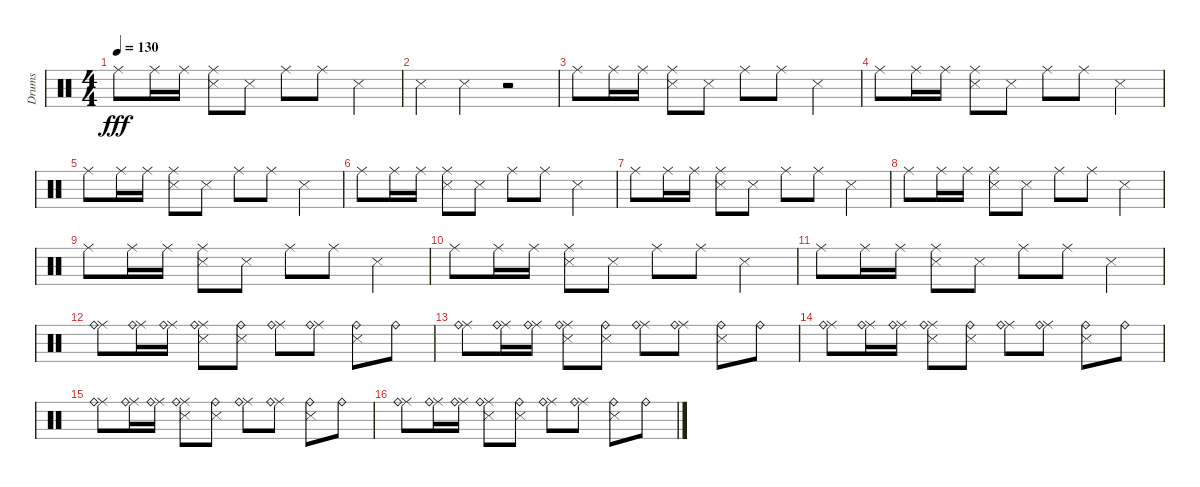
\track ("Drums" "Drums") {instrument percussion}
\staff {score}
\articulation defaults
\ts (4 4)
\tempo 130
\clef neutral
\ks c "Ride (middle)".8{dy fff} "Ride (middle)".16 "Ride (middle)".16
("Ride (middle)" "Snare (side stick) 3").8 "Snare (side stick) 3".8 "Ride (middle)".8 "Ride (middle)".8 "Snare (side stick) 3".4 |
"Snare (side stick) 3".4 "Snare (side stick) 3".4 r.2 |
"Ride (middle)".8 "Ride (middle)".16 "Ride (middle)".16 ("Ride (middle)" "Snare (side stick) 3").8 "Snare (side stick) 3".8 "Ride (middle)".8 "Ride (middle)".8 "Snare (side stick) 3".4 |
"Ride (middle)".8 "Ride (middle)".16 "Ride (middle)".16 ("Ride (middle)" "Snare (side stick) 3").8 "Snare (side stick) 3".8 "Ride (middle)".8 "Ride (middle)".8 "Snare (side stick) 3".4 |
"Ride (middle)".8 "Ride (middle)".16 "Ride (middle)".16 ("Ride (middle)" "Snare (side stick) 3").8 "Snare (side stick) 3".8 "Ride (middle)".8 "Ride (middle)".8 "Snare (side stick) 3".4 |
"Ride (middle)".8 "Ride (middle)".16 "Ride (middle)".16 ("Ride (middle)" "Snare (side stick) 3").8 "Snare (side stick) 3".8 "Ride (middle)".8 "Ride (middle)".8 "Snare (side stick) 3".4 |
"Ride (middle)".8 "Ride (middle)".16 "Ride (middle)".16 ("Ride (middle)" "Snare (side stick) 3").8 "Snare (side stick) 3".8 "Ride (middle)".8 "Ride (middle)".8 "Snare (side stick) 3".4 |
"Ride (middle)".8 "Ride (middle)".16 "Ride (middle)".16 ("Ride (middle)" "Snare (side stick) 3").8 "Snare (side stick) 3".8 "Ride (middle)".8 "Ride (middle)".8 "Snare (side stick) 3".4 |
"Ride (middle)".8 "Ride (middle)".16 "Ride (middle)".16 ("Ride (middle)" "Snare (side stick) 3").8 "Snare (side stick) 3".8 "Ride (middle)".8 "Ride (middle)".8 "Snare (side stick) 3".4 |
"Ride (middle)".8 "Ride (middle)".16 "Ride (middle)".16 ("Ride (middle)" "Snare (side stick) 3").8 "Snare (side stick) 3".8 "Ride (middle)".8 "Ride (middle)".8 "Snare (side stick) 3".4 |
"Ride (middle)".8 "Ride (middle)".16 "Ride (middle)".16 ("Ride (middle)" "Snare (side stick) 3").8 "Snare (side stick) 3".8 "Ride (middle)".8 "Ride (middle)".8 "Snare (side stick) 3".4 |
("Ride (middle)" "Ride (bell)").8 ("Ride (middle)" "Ride (bell)").16 ("Ride (middle)" "Ride (bell)").16 ("Ride (middle)" "Ride (bell)" "Snare (side stick) 3").8 ("Ride (bell)" "Snare (side stick) 3").8 ("Ride (middle)" "Ride (bell)").8 ("Ride (middle)" "Ride (bell)").8 ("Ride (bell)" "Snare (side stick) 3").8 "Ride (bell)".8 |
("Ride (middle)" "Ride (bell)").8 ("Ride (middle)" "Ride (bell)").16 ("Ride (middle)" "Ride (bell)").16 ("Ride (middle)" "Ride (bell)" "Snare (side stick) 3").8 ("Ride (bell)" "Snare (side stick) 3").8 ("Ride (middle)" "Ride (bell)").8 ("Ride (middle)" "Ride (bell)").8 ("Ride (bell)" "Snare (side stick) 3").8 "Ride (bell)".8 |
("Ride (middle)" "Ride (bell)").8 ("Ride (middle)" "Ride (bell)").16 ("Ride (middle)" "Ride (bell)").16 ("Ride (middle)" "Ride (bell)" "Snare (side stick) 3").8 ("Ride (bell)" "Snare (side stick) 3").8 ("Ride (middle)" "Ride (bell)").8 ("Ride (middle)" "Ride (bell)").8 ("Ride (bell)" "Snare (side stick) 3").8 "Ride (bell)".8 |
("Ride (middle)" "Ride (bell)").8 ("Ride (middle)" "Ride (bell)").16 ("Ride (middle)" "Ride (bell)").16 ("Ride (middle)" "Ride (bell)" "Snare (side stick) 3").8 ("Ride (bell)" "Snare (side stick) 3").8 ("Ride (middle)" "Ride (bell)").8 ("Ride (middle)" "Ride (bell)").8 ("Ride (bell)" "Snare (side stick) 3").8 "Ride (bell)".8 |
("Ride (middle)" "Ride (bell)").8 ("Ride (middle)" "Ride (bell)").16 ("Ride (middle)" "Ride (bell)").16 ("Ride (middle)" "Ride (bell)" "Snare (side stick) 3").8 ("Ride (bell)" "Snare (side stick) 3").8 ("Ride (middle)" "Ride (bell)").8 ("Ride (middle)" "Ride (bell)").8 ("Ride (bell)" "Snare (side stick) 3").8 "Ride (bell)".8
